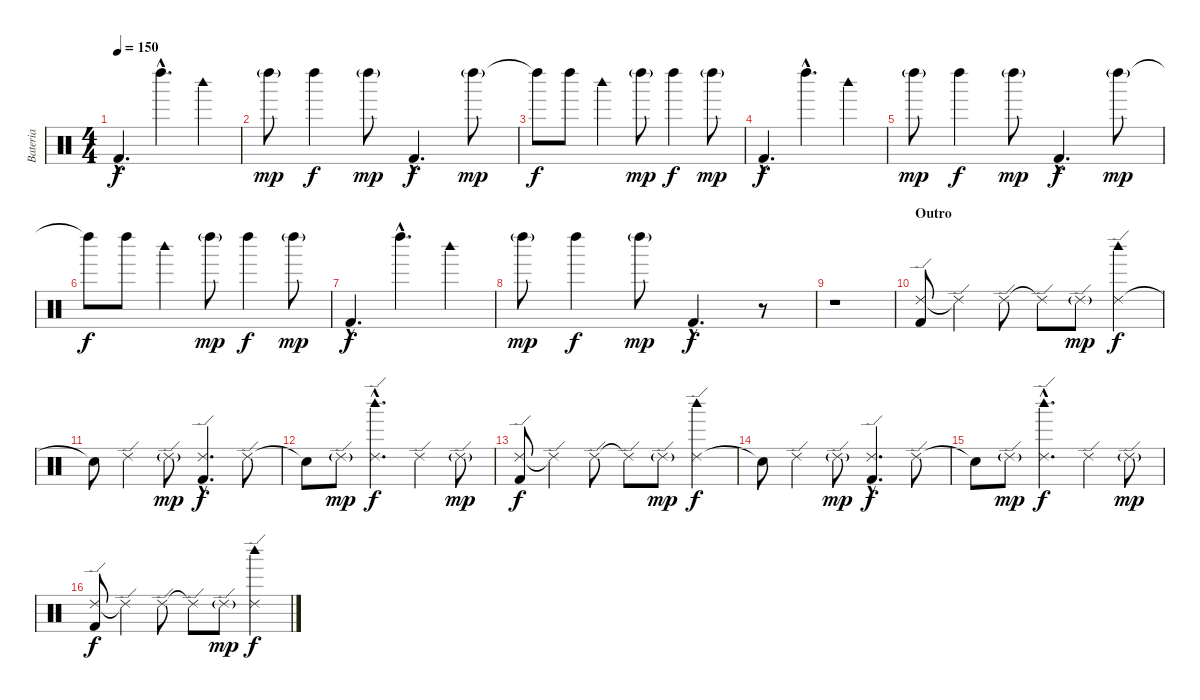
\track ("Bateria" "Bateria") {instrument percussion}
\staff {score}
\articulation defaults
\ts (4 4)
\tempo 150
\clef neutral
\ks c "Kick (hit) 2"{hac}.4{d dy f} "Left Maraca (hit)"{hac}.4{d} "Woodblock high (hit)".4
|
"Left Maraca (hit)"{g}.8{dy mp} "Left Maraca (hit)".4{dy f} "Left Maraca (hit)"{g}.8{dy mp} "Kick (hit) 2"{hac}.4{d dy f} "Left Maraca (hit)"{g}.8{dy mp} |
"Left Maraca (hit)"{t}.8{dy f} "Left Maraca (hit)".8 "Woodblock high (hit)".4 "Left Maraca (hit)"{g}.8{dy mp} "Left Maraca (hit)".4{dy f} "Left Maraca (hit)"{g}.8{dy mp} |
"Kick (hit) 2"{hac}.4{d dy f} "Left Maraca (hit)"{hac}.4{d} "Woodblock high (hit)".4 |
"Left Maraca (hit)"{g}.8{dy mp} "Left Maraca (hit)".4{dy f} "Left Maraca (hit)"{g}.8{dy mp} "Kick (hit) 2"{hac}.4{d dy f} "Left Maraca (hit)"{g}.8{dy mp} |
"Left Maraca (hit)"{t}.8{dy f} "Left Maraca (hit)".8 "Woodblock high (hit)".4 "Left Maraca (hit)"{g}.8{dy mp} "Left Maraca (hit)".4{dy f} "Left Maraca (hit)"{g}.8{dy mp} |
"Kick (hit) 2"{hac}.4{d dy f} "Left Maraca (hit)"{hac}.4{d} "Woodblock high (hit)".4 |
"Left Maraca (hit)"{g}.8{dy mp} "Left Maraca (hit)".4{dy f} "Left Maraca (hit)"{g}.8{dy mp} "Kick (hit) 2"{hac}.4{d dy f} r.8 |
r.1 |
\section ("" "Outro")
("Ride (edge) 2" "Kick (hit) 2").8 "Ride (edge) 2"{t}.4 "Ride (edge) 2".8 "Ride (edge) 2"{t}.8 "Ride (edge) 2"{g}.8{dy mp} ("Ride (edge) 2" "Woodblock high (hit)").4{dy f} |
"Snare (hit)"{t}.8 "Ride (edge) 2".4 "Ride (edge) 2"{g}.8{dy mp} ("Ride (edge) 2"{hac} "Kick (hit) 2"{hac}).4{d dy f} "Ride (edge) 2".8 |
"Snare (hit)"{t}.8 "Ride (edge) 2"{g}.8{dy mp} ("Ride (edge) 2"{hac} "Woodblock high (hit)"{hac}).4{d dy f} "Ride (edge) 2".4 "Ride (edge) 2"{g}.8{dy mp} |
("Ride (edge) 2" "Kick (hit) 2").8{dy f} "Ride (edge) 2"{t}.4 "Ride (edge) 2".8 "Ride (edge) 2"{t}.8 "Ride (edge) 2"{g}.8{dy mp} ("Ride (edge) 2" "Woodblock high (hit)").4{dy f} |
"Snare (hit)"{t}.8 "Ride (edge) 2".4 "Ride (edge) 2"{g}.8{dy mp} ("Ride (edge) 2"{hac} "Kick (hit) 2"{hac}).4{d dy f} "Ride (edge) 2".8 |
"Snare (hit)"{t}.8 "Ride (edge) 2"{g}.8{dy mp} ("Ride (edge) 2"{hac} "Woodblock high (hit)"{hac}).4{d dy f} "Ride (edge) 2".4 "Ride (edge) 2"{g}.8{dy mp} |
("Ride (edge) 2" "Kick (hit) 2").8{dy f} "Ride (edge) 2"{t}.4 "Ride (edge) 2".8 "Ride (edge) 2"{t}.8 "Ride (edge) 2"{g}.8{dy mp} ("Ride (edge) 2" "Woodblock high (hit)").4{dy f}
